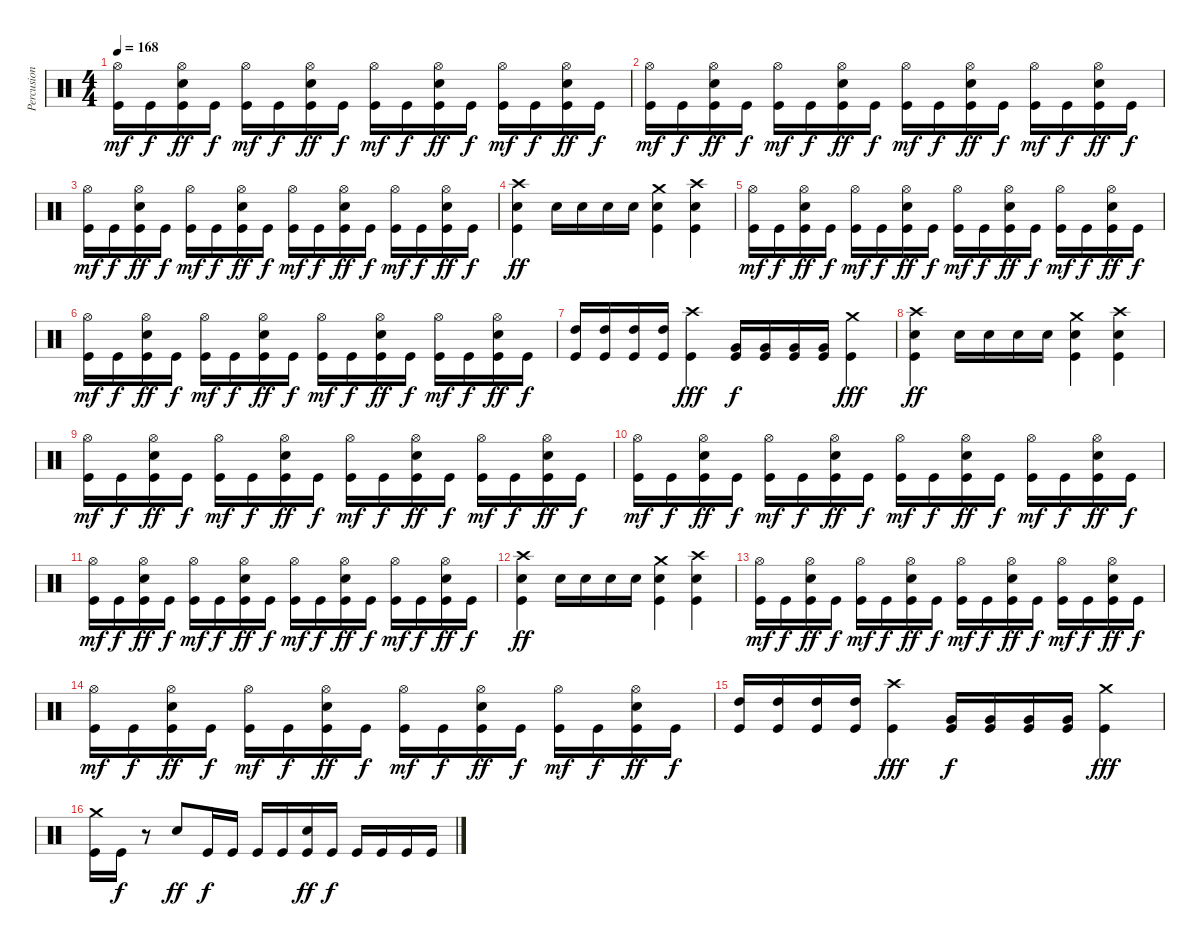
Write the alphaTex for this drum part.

\track ("Percusion" "Percusion") {instrument percussion}
\staff {score}
\articulation defaults
\ts (4 4)
\tempo 168
\clef neutral
\ks c
("Hi-Hat (open)" "Kick (hit)").16{dy mf} "Kick (hit)".16{dy f} ("Hi-Hat (open)" "Snare (hit) 2" "Kick (hit)").16{dy ff} "Kick (hit)".16{dy f} ("Hi-Hat (open)" "Kick (hit)").16{dy mf} "Kick (hit)".16{dy f} ("Hi-Hat (open)" "Snare (hit) 2" "Kick (hit)").16{dy ff} "Kick (hit)".16{dy f} ("Hi-Hat (open)" "Kick (hit)").16{dy mf} "Kick (hit)".16{dy f} ("Hi-Hat (open)" "Snare (hit) 2" "Kick (hit)").16{dy ff} "Kick (hit)".16{dy f} ("Hi-Hat (open)" "Kick (hit)").16{dy mf} "Kick (hit)".16{dy f} ("Hi-Hat (open)" "Snare (hit) 2" "Kick (hit)").16{dy ff} "Kick (hit)".16{dy f} |
("Hi-Hat (open)" "Kick (hit)").16{dy mf} "Kick (hit)".16{dy f} ("Hi-Hat (open)" "Snare (hit) 2" "Kick (hit)").16{dy ff} "Kick (hit)".16{dy f} ("Hi-Hat (open)" "Kick (hit)").16{dy mf} "Kick (hit)".16{dy f} ("Hi-Hat (open)" "Snare (hit) 2" "Kick (hit)").16{dy ff} "Kick (hit)".16{dy f} ("Hi-Hat (open)" "Kick (hit)").16{dy mf} "Kick (hit)".16{dy f} ("Hi-Hat (open)" "Snare (hit) 2" "Kick (hit)").16{dy ff} "Kick (hit)".16{dy f} ("Hi-Hat (open)" "Kick (hit)").16{dy mf} "Kick (hit)".16{dy f} ("Hi-Hat (open)" "Snare (hit) 2" "Kick (hit)").16{dy ff} "Kick (hit)".16{dy f} |
("Hi-Hat (open)" "Kick (hit)").16{dy mf} "Kick (hit)".16{dy f} ("Hi-Hat (open)" "Snare (hit) 2" "Kick (hit)").16{dy ff} "Kick (hit)".16{dy f} ("Hi-Hat (open)" "Kick (hit)").16{dy mf} "Kick (hit)".16{dy f} ("Hi-Hat (open)" "Snare (hit) 2" "Kick (hit)").16{dy ff} "Kick (hit)".16{dy f} ("Hi-Hat (open)" "Kick (hit)").16{dy mf} "Kick (hit)".16{dy f} ("Hi-Hat (open)" "Snare (hit) 2" "Kick (hit)").16{dy ff} "Kick (hit)".16{dy f} ("Hi-Hat (open)" "Kick (hit)").16{dy mf} "Kick (hit)".16{dy f} ("Hi-Hat (open)" "Snare (hit) 2" "Kick (hit)").16{dy ff} "Kick (hit)".16{dy f} |
("Crash high (hit)" "Snare (hit) 2" "Kick (hit)").4{dy ff} "Snare (hit) 2".16 "Snare (hit) 2".16 "Snare (hit) 2".16 "Snare (hit) 2".16 ("Crash medium (hit)" "Snare (hit) 2" "Kick (hit)").4 ("Crash high (hit)" "Snare (hit) 2" "Kick (hit)").4 |
("Hi-Hat (open)" "Kick (hit)").16{dy mf} "Kick (hit)".16{dy f} ("Hi-Hat (open)" "Snare (hit) 2" "Kick (hit)").16{dy ff} "Kick (hit)".16{dy f} ("Hi-Hat (open)" "Kick (hit)").16{dy mf} "Kick (hit)".16{dy f} ("Hi-Hat (open)" "Snare (hit) 2" "Kick (hit)").16{dy ff} "Kick (hit)".16{dy f} ("Hi-Hat (open)" "Kick (hit)").16{dy mf} "Kick (hit)".16{dy f} ("Hi-Hat (open)" "Snare (hit) 2" "Kick (hit)").16{dy ff} "Kick (hit)".16{dy f} ("Hi-Hat (open)" "Kick (hit)").16{dy mf} "Kick (hit)".16{dy f} ("Hi-Hat (open)" "Snare (hit) 2" "Kick (hit)").16{dy ff} "Kick (hit)".16{dy f} |
("Hi-Hat (open)" "Kick (hit)").16{dy mf} "Kick (hit)".16{dy f} ("Hi-Hat (open)" "Snare (hit) 2" "Kick (hit)").16{dy ff} "Kick (hit)".16{dy f} ("Hi-Hat (open)" "Kick (hit)").16{dy mf} "Kick (hit)".16{dy f} ("Hi-Hat (open)" "Snare (hit) 2" "Kick (hit)").16{dy ff} "Kick (hit)".16{dy f} ("Hi-Hat (open)" "Kick (hit)").16{dy mf} "Kick (hit)".16{dy f} ("Hi-Hat (open)" "Snare (hit) 2" "Kick (hit)").16{dy ff} "Kick (hit)".16{dy f} ("Hi-Hat (open)" "Kick (hit)").16{dy mf} "Kick (hit)".16{dy f} ("Hi-Hat (open)" "Snare (hit) 2" "Kick (hit)").16{dy ff} "Kick (hit)".16{dy f} |
("High Tom (hit)" "Kick (hit)").16 ("High Tom (hit)" "Kick (hit)").16 ("High Tom (hit)" "Kick (hit)").16 ("High Tom (hit)" "Kick (hit)").16 ("Crash high (hit)" "Kick (hit)").4{dy fff} ("Very Low Tom (hit)" "Kick (hit)").16{dy f} ("Very Low Tom (hit)" "Kick (hit)").16 ("Very Low Tom (hit)" "Kick (hit)").16 ("Very Low Tom (hit)" "Kick (hit)").16 ("Crash medium (hit)" "Kick (hit)").4{dy fff} |
("Crash high (hit)" "Snare (hit) 2" "Kick (hit)").4{dy ff} "Snare (hit) 2".16 "Snare (hit) 2".16 "Snare (hit) 2".16 "Snare (hit) 2".16 ("Crash medium (hit)" "Snare (hit) 2" "Kick (hit)").4 ("Crash high (hit)" "Snare (hit) 2" "Kick (hit)").4 |
("Hi-Hat (open)" "Kick (hit)").16{dy mf} "Kick (hit)".16{dy f} ("Hi-Hat (open)" "Snare (hit) 2" "Kick (hit)").16{dy ff} "Kick (hit)".16{dy f} ("Hi-Hat (open)" "Kick (hit)").16{dy mf} "Kick (hit)".16{dy f} ("Hi-Hat (open)" "Snare (hit) 2" "Kick (hit)").16{dy ff} "Kick (hit)".16{dy f} ("Hi-Hat (open)" "Kick (hit)").16{dy mf} "Kick (hit)".16{dy f} ("Hi-Hat (open)" "Snare (hit) 2" "Kick (hit)").16{dy ff} "Kick (hit)".16{dy f} ("Hi-Hat (open)" "Kick (hit)").16{dy mf} "Kick (hit)".16{dy f} ("Hi-Hat (open)" "Snare (hit) 2" "Kick (hit)").16{dy ff} "Kick (hit)".16{dy f} |
("Hi-Hat (open)" "Kick (hit)").16{dy mf} "Kick (hit)".16{dy f} ("Hi-Hat (open)" "Snare (hit) 2" "Kick (hit)").16{dy ff} "Kick (hit)".16{dy f} ("Hi-Hat (open)" "Kick (hit)").16{dy mf} "Kick (hit)".16{dy f} ("Hi-Hat (open)" "Snare (hit) 2" "Kick (hit)").16{dy ff} "Kick (hit)".16{dy f} ("Hi-Hat (open)" "Kick (hit)").16{dy mf} "Kick (hit)".16{dy f} ("Hi-Hat (open)" "Snare (hit) 2" "Kick (hit)").16{dy ff} "Kick (hit)".16{dy f} ("Hi-Hat (open)" "Kick (hit)").16{dy mf} "Kick (hit)".16{dy f} ("Hi-Hat (open)" "Snare (hit) 2" "Kick (hit)").16{dy ff} "Kick (hit)".16{dy f} |
("Hi-Hat (open)" "Kick (hit)").16{dy mf} "Kick (hit)".16{dy f} ("Hi-Hat (open)" "Snare (hit) 2" "Kick (hit)").16{dy ff} "Kick (hit)".16{dy f} ("Hi-Hat (open)" "Kick (hit)").16{dy mf} "Kick (hit)".16{dy f} ("Hi-Hat (open)" "Snare (hit) 2" "Kick (hit)").16{dy ff} "Kick (hit)".16{dy f} ("Hi-Hat (open)" "Kick (hit)").16{dy mf} "Kick (hit)".16{dy f} ("Hi-Hat (open)" "Snare (hit) 2" "Kick (hit)").16{dy ff} "Kick (hit)".16{dy f} ("Hi-Hat (open)" "Kick (hit)").16{dy mf} "Kick (hit)".16{dy f} ("Hi-Hat (open)" "Snare (hit) 2" "Kick (hit)").16{dy ff} "Kick (hit)".16{dy f} |
("Crash high (hit)" "Snare (hit) 2" "Kick (hit)").4{dy ff} "Snare (hit) 2".16 "Snare (hit) 2".16 "Snare (hit) 2".16 "Snare (hit) 2".16 ("Crash medium (hit)" "Snare (hit) 2" "Kick (hit)").4 ("Crash high (hit)" "Snare (hit) 2" "Kick (hit)").4 |
("Hi-Hat (open)" "Kick (hit)").16{dy mf} "Kick (hit)".16{dy f} ("Hi-Hat (open)" "Snare (hit) 2" "Kick (hit)").16{dy ff} "Kick (hit)".16{dy f} ("Hi-Hat (open)" "Kick (hit)").16{dy mf} "Kick (hit)".16{dy f} ("Hi-Hat (open)" "Snare (hit) 2" "Kick (hit)").16{dy ff} "Kick (hit)".16{dy f} ("Hi-Hat (open)" "Kick (hit)").16{dy mf} "Kick (hit)".16{dy f} ("Hi-Hat (open)" "Snare (hit) 2" "Kick (hit)").16{dy ff} "Kick (hit)".16{dy f} ("Hi-Hat (open)" "Kick (hit)").16{dy mf} "Kick (hit)".16{dy f} ("Hi-Hat (open)" "Snare (hit) 2" "Kick (hit)").16{dy ff} "Kick (hit)".16{dy f} |
("Hi-Hat (open)" "Kick (hit)").16{dy mf} "Kick (hit)".16{dy f} ("Hi-Hat (open)" "Snare (hit) 2" "Kick (hit)").16{dy ff} "Kick (hit)".16{dy f} ("Hi-Hat (open)" "Kick (hit)").16{dy mf} "Kick (hit)".16{dy f} ("Hi-Hat (open)" "Snare (hit) 2" "Kick (hit)").16{dy ff} "Kick (hit)".16{dy f} ("Hi-Hat (open)" "Kick (hit)").16{dy mf} "Kick (hit)".16{dy f} ("Hi-Hat (open)" "Snare (hit) 2" "Kick (hit)").16{dy ff} "Kick (hit)".16{dy f} ("Hi-Hat (open)" "Kick (hit)").16{dy mf} "Kick (hit)".16{dy f} ("Hi-Hat (open)" "Snare (hit) 2" "Kick (hit)").16{dy ff} "Kick (hit)".16{dy f} |
("High Tom (hit)" "Kick (hit)").16 ("High Tom (hit)" "Kick (hit)").16 ("High Tom (hit)" "Kick (hit)").16 ("High Tom (hit)" "Kick (hit)").16 ("Crash high (hit)" "Kick (hit)").4{dy fff} ("Very Low Tom (hit)" "Kick (hit)").16{dy f} ("Very Low Tom (hit)" "Kick (hit)").16 ("Very Low Tom (hit)" "Kick (hit)").16 ("Very Low Tom (hit)" "Kick (hit)").16 ("Crash medium (hit)" "Kick (hit)").4{dy fff} |
("Crash medium (hit)" "Kick (hit)").16 "Kick (hit)".16{dy f} r.8 "Snare (hit) 2".8{dy ff} "Kick (hit)".16{dy f} "Kick (hit)".16 "Kick (hit)".16 "Kick (hit)".16 ("Snare (hit) 2" "Kick (hit)").16{dy ff} "Kick (hit)".16{dy f} "Kick (hit)".16 "Kick (hit)".16 "Kick (hit)".16 "Kick (hit)".16
